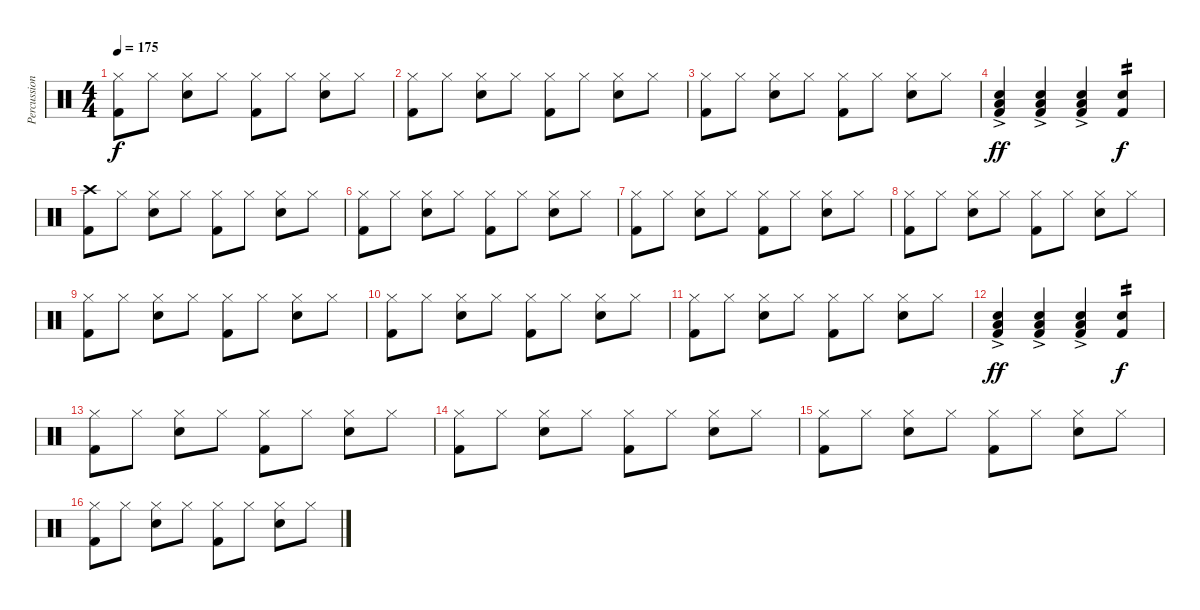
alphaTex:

\track ("Percussion" "Percussion") {instrument percussion}
\staff {score}
\articulation defaults
\ts (4 4)
\tempo 175
\clef neutral
\ks c
("Hi-Hat (closed)" "Kick (hit) 2").8{dy f} "Hi-Hat (closed)".8 ("Hi-Hat (closed)" "Snare (hit) 2").8 "Hi-Hat (closed)".8 ("Hi-Hat (closed)" "Kick (hit) 2").8 "Hi-Hat (closed)".8 ("Hi-Hat (closed)" "Snare (hit) 2").8 "Hi-Hat (closed)".8 |
("Hi-Hat (closed)" "Kick (hit) 2").8 "Hi-Hat (closed)".8 ("Hi-Hat (closed)" "Snare (hit) 2").8 "Hi-Hat (closed)".8 ("Hi-Hat (closed)" "Kick (hit) 2").8 "Hi-Hat (closed)".8 ("Hi-Hat (closed)" "Snare (hit) 2").8 "Hi-Hat (closed)".8 |
("Hi-Hat (closed)" "Kick (hit) 2").8 "Hi-Hat (closed)".8 ("Hi-Hat (closed)" "Snare (hit) 2").8 "Hi-Hat (closed)".8 ("Hi-Hat (closed)" "Kick (hit) 2").8 "Hi-Hat (closed)".8 ("Hi-Hat (closed)" "Snare (hit) 2").8 "Hi-Hat (closed)".8 |
("Snare (hit) 2"{ac} "Low Floor Tom (hit)" "Kick (hit) 2"{ac}).4{dy ff} ("Snare (hit) 2"{ac} "Low Floor Tom (hit)" "Kick (hit) 2"{ac}).4 ("Snare (hit) 2"{ac} "Low Floor Tom (hit)" "Kick (hit) 2"{ac}).4 ("Snare (hit) 2" "Kick (hit) 2").4{tp 2 dy f} |
("Crash high (hit)" "Kick (hit) 2").8 "Hi-Hat (closed)".8 ("Hi-Hat (closed)" "Snare (hit) 2").8 "Hi-Hat (closed)".8 ("Hi-Hat (closed)" "Kick (hit) 2").8 "Hi-Hat (closed)".8 ("Hi-Hat (closed)" "Snare (hit) 2").8 "Hi-Hat (closed)".8 |
("Hi-Hat (closed)" "Kick (hit) 2").8 "Hi-Hat (closed)".8 ("Hi-Hat (closed)" "Snare (hit) 2").8 "Hi-Hat (closed)".8 ("Hi-Hat (closed)" "Kick (hit) 2").8 "Hi-Hat (closed)".8 ("Hi-Hat (closed)" "Snare (hit) 2").8 "Hi-Hat (closed)".8 |
("Hi-Hat (closed)" "Kick (hit) 2").8 "Hi-Hat (closed)".8 ("Hi-Hat (closed)" "Snare (hit) 2").8 "Hi-Hat (closed)".8 ("Hi-Hat (closed)" "Kick (hit) 2").8 "Hi-Hat (closed)".8 ("Hi-Hat (closed)" "Snare (hit) 2").8 "Hi-Hat (closed)".8 |
("Hi-Hat (closed)" "Kick (hit) 2").8 "Hi-Hat (closed)".8 ("Hi-Hat (closed)" "Snare (hit) 2").8 "Hi-Hat (closed)".8 ("Hi-Hat (closed)" "Kick (hit) 2").8 "Hi-Hat (closed)".8 ("Hi-Hat (closed)" "Snare (hit) 2").8 "Hi-Hat (closed)".8 |
("Hi-Hat (closed)" "Kick (hit) 2").8 "Hi-Hat (closed)".8 ("Hi-Hat (closed)" "Snare (hit) 2").8 "Hi-Hat (closed)".8 ("Hi-Hat (closed)" "Kick (hit) 2").8 "Hi-Hat (closed)".8 ("Hi-Hat (closed)" "Snare (hit) 2").8 "Hi-Hat (closed)".8 |
("Hi-Hat (closed)" "Kick (hit) 2").8 "Hi-Hat (closed)".8 ("Hi-Hat (closed)" "Snare (hit) 2").8 "Hi-Hat (closed)".8 ("Hi-Hat (closed)" "Kick (hit) 2").8 "Hi-Hat (closed)".8 ("Hi-Hat (closed)" "Snare (hit) 2").8 "Hi-Hat (closed)".8 |
("Hi-Hat (closed)" "Kick (hit) 2").8 "Hi-Hat (closed)".8 ("Hi-Hat (closed)" "Snare (hit) 2").8 "Hi-Hat (closed)".8 ("Hi-Hat (closed)" "Kick (hit) 2").8 "Hi-Hat (closed)".8 ("Hi-Hat (closed)" "Snare (hit) 2").8 "Hi-Hat (closed)".8 |
("Snare (hit) 2"{ac} "Low Floor Tom (hit)" "Kick (hit) 2"{ac}).4{dy ff} ("Snare (hit) 2"{ac} "Low Floor Tom (hit)" "Kick (hit) 2"{ac}).4 ("Snare (hit) 2"{ac} "Low Floor Tom (hit)" "Kick (hit) 2"{ac}).4 ("Snare (hit) 2" "Kick (hit) 2").4{tp 2 dy f} |
("Hi-Hat (closed)" "Kick (hit) 2").8 "Hi-Hat (closed)".8 ("Hi-Hat (closed)" "Snare (hit) 2").8 "Hi-Hat (closed)".8 ("Hi-Hat (closed)" "Kick (hit) 2").8 "Hi-Hat (closed)".8 ("Hi-Hat (closed)" "Snare (hit) 2").8 "Hi-Hat (closed)".8 |
("Hi-Hat (closed)" "Kick (hit) 2").8 "Hi-Hat (closed)".8 ("Hi-Hat (closed)" "Snare (hit) 2").8 "Hi-Hat (closed)".8 ("Hi-Hat (closed)" "Kick (hit) 2").8 "Hi-Hat (closed)".8 ("Hi-Hat (closed)" "Snare (hit) 2").8 "Hi-Hat (closed)".8 |
("Hi-Hat (closed)" "Kick (hit) 2").8 "Hi-Hat (closed)".8 ("Hi-Hat (closed)" "Snare (hit) 2").8 "Hi-Hat (closed)".8 ("Hi-Hat (closed)" "Kick (hit) 2").8 "Hi-Hat (closed)".8 ("Hi-Hat (closed)" "Snare (hit) 2").8 "Hi-Hat (closed)".8 |
("Hi-Hat (closed)" "Kick (hit) 2").8 "Hi-Hat (closed)".8 ("Hi-Hat (closed)" "Snare (hit) 2").8 "Hi-Hat (closed)".8 ("Hi-Hat (closed)" "Kick (hit) 2").8 "Hi-Hat (closed)".8 ("Hi-Hat (closed)" "Snare (hit) 2").8 "Hi-Hat (closed)".8
